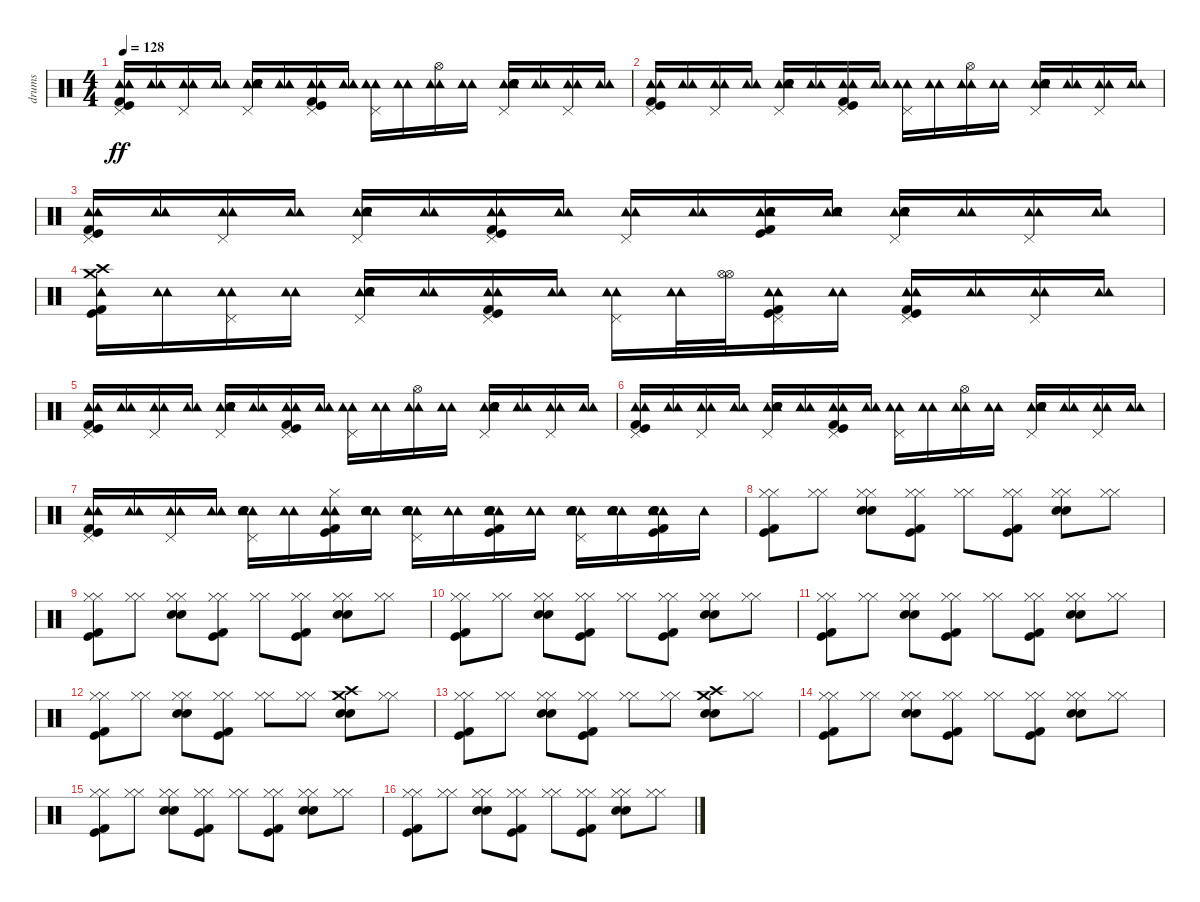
\track ("drums" "drums") {instrument percussion}
\staff {score}
\articulation defaults
\ts (4 4)
\tempo 128
\clef neutral
\ks c
("Tambourine (hit)" "Tambourine (hit)" "Pedal Hi-Hat (hit)" "Kick (hit)" "Kick (hit) 2").16{dy ff} ("Tambourine (hit)" "Tambourine (hit)").16 ("Tambourine (hit)" "Tambourine (hit)" "Pedal Hi-Hat (hit)").16 ("Tambourine (hit)" "Tambourine (hit)").16 ("Tambourine (hit)" "Tambourine (hit)" "Pedal Hi-Hat (hit)" "Snare (hit) 2" "Snare (hit) 2").16 ("Tambourine (hit)" "Tambourine (hit)").16 ("Tambourine (hit)" "Tambourine (hit)" "Pedal Hi-Hat (hit)" "Kick (hit)" "Kick (hit) 2").16 ("Tambourine (hit)" "Tambourine (hit)").16 ("Tambourine (hit)" "Tambourine (hit)" "Pedal Hi-Hat (hit)").16 ("Tambourine (hit)" "Tambourine (hit)").16 ("Tambourine (hit)" "Tambourine (hit)" "Hi-Hat (open)").16 ("Tambourine (hit)" "Tambourine (hit)").16 ("Tambourine (hit)" "Tambourine (hit)" "Pedal Hi-Hat (hit)" "Snare (hit) 2" "Snare (hit) 2").16 ("Tambourine (hit)" "Tambourine (hit)").16 ("Tambourine (hit)" "Tambourine (hit)" "Pedal Hi-Hat (hit)").16 ("Tambourine (hit)" "Tambourine (hit)").16 |
("Tambourine (hit)" "Tambourine (hit)" "Pedal Hi-Hat (hit)" "Kick (hit)" "Kick (hit) 2").16 ("Tambourine (hit)" "Tambourine (hit)").16 ("Tambourine (hit)" "Tambourine (hit)" "Pedal Hi-Hat (hit)").16 ("Tambourine (hit)" "Tambourine (hit)").16 ("Tambourine (hit)" "Tambourine (hit)" "Pedal Hi-Hat (hit)" "Snare (hit) 2" "Snare (hit) 2").16 ("Tambourine (hit)" "Tambourine (hit)").16 ("Tambourine (hit)" "Tambourine (hit)" "Pedal Hi-Hat (hit)" "Kick (hit)" "Kick (hit) 2").16 ("Tambourine (hit)" "Tambourine (hit)").16 ("Tambourine (hit)" "Tambourine (hit)" "Pedal Hi-Hat (hit)").16 ("Tambourine (hit)" "Tambourine (hit)").16 ("Tambourine (hit)" "Tambourine (hit)" "Hi-Hat (open)").16 ("Tambourine (hit)" "Tambourine (hit)").16 ("Tambourine (hit)" "Tambourine (hit)" "Pedal Hi-Hat (hit)" "Snare (hit) 2" "Snare (hit) 2").16 ("Tambourine (hit)" "Tambourine (hit)").16 ("Tambourine (hit)" "Tambourine (hit)" "Pedal Hi-Hat (hit)").16 ("Tambourine (hit)" "Tambourine (hit)").16 |
("Tambourine (hit)" "Tambourine (hit)" "Pedal Hi-Hat (hit)" "Kick (hit)" "Kick (hit) 2").16 ("Tambourine (hit)" "Tambourine (hit)").16 ("Tambourine (hit)" "Tambourine (hit)" "Pedal Hi-Hat (hit)").16 ("Tambourine (hit)" "Tambourine (hit)").16 ("Tambourine (hit)" "Tambourine (hit)" "Pedal Hi-Hat (hit)" "Snare (hit) 2" "Snare (hit) 2").16 ("Tambourine (hit)" "Tambourine (hit)").16 ("Pedal Hi-Hat (hit)" "Tambourine (hit)" "Tambourine (hit)" "Kick (hit)" "Kick (hit) 2").16 ("Tambourine (hit)" "Tambourine (hit)").16 ("Tambourine (hit)" "Tambourine (hit)" "Pedal Hi-Hat (hit)").16 ("Tambourine (hit)" "Tambourine (hit)").16 ("Tambourine (hit)" "Tambourine (hit)" "Snare (hit) 2" "Snare (hit) 2" "Kick (hit)" "Kick (hit) 2").16 ("Tambourine (hit)" "Tambourine (hit)" "Snare (hit) 2" "Snare (hit) 2").16 ("Tambourine (hit)" "Tambourine (hit)" "Pedal Hi-Hat (hit)" "Snare (hit) 2" "Snare (hit) 2").16 ("Tambourine (hit)" "Tambourine (hit)").16 ("Tambourine (hit)" "Tambourine (hit)" "Pedal Hi-Hat (hit)").16 ("Tambourine (hit)" "Tambourine (hit)").16 |
("Crash high (hit)" "Crash medium (hit)" "Tambourine (hit)" "Kick (hit)" "Kick (hit) 2").16 ("Tambourine (hit)" "Tambourine (hit)").16 ("Tambourine (hit)" "Tambourine (hit)" "Pedal Hi-Hat (hit)").16 ("Tambourine (hit)" "Tambourine (hit)").16 ("Tambourine (hit)" "Tambourine (hit)" "Pedal Hi-Hat (hit)" "Snare (hit) 2" "Snare (hit) 2").16 ("Tambourine (hit)" "Tambourine (hit)").16 ("Tambourine (hit)" "Tambourine (hit)" "Pedal Hi-Hat (hit)" "Kick (hit)" "Kick (hit) 2").16 ("Tambourine (hit)" "Tambourine (hit)").16 ("Tambourine (hit)" "Tambourine (hit)" "Pedal Hi-Hat (hit)").16 ("Tambourine (hit)" "Tambourine (hit)").32 ("Hi-Hat (open)" "Hi-Hat (open)").32 ("Tambourine (hit)" "Tambourine (hit)" "Pedal Hi-Hat (hit)" "Kick (hit)" "Kick (hit) 2").16 ("Tambourine (hit)" "Tambourine (hit)").16 ("Tambourine (hit)" "Tambourine (hit)" "Pedal Hi-Hat (hit)" "Kick (hit)" "Kick (hit) 2").16 ("Tambourine (hit)" "Tambourine (hit)").16 ("Tambourine (hit)" "Tambourine (hit)" "Pedal Hi-Hat (hit)").16 ("Tambourine (hit)" "Tambourine (hit)").16 |
("Tambourine (hit)" "Tambourine (hit)" "Pedal Hi-Hat (hit)" "Kick (hit)" "Kick (hit) 2").16 ("Tambourine (hit)" "Tambourine (hit)").16 ("Tambourine (hit)" "Tambourine (hit)" "Pedal Hi-Hat (hit)").16 ("Tambourine (hit)" "Tambourine (hit)").16 ("Tambourine (hit)" "Tambourine (hit)" "Pedal Hi-Hat (hit)" "Snare (hit) 2" "Snare (hit) 2").16 ("Tambourine (hit)" "Tambourine (hit)").16 ("Tambourine (hit)" "Tambourine (hit)" "Pedal Hi-Hat (hit)" "Kick (hit)" "Kick (hit) 2").16 ("Tambourine (hit)" "Tambourine (hit)").16 ("Tambourine (hit)" "Tambourine (hit)" "Pedal Hi-Hat (hit)").16 ("Tambourine (hit)" "Tambourine (hit)").16 ("Tambourine (hit)" "Tambourine (hit)" "Hi-Hat (open)").16 ("Tambourine (hit)" "Tambourine (hit)").16 ("Tambourine (hit)" "Tambourine (hit)" "Pedal Hi-Hat (hit)" "Snare (hit) 2" "Snare (hit) 2").16 ("Tambourine (hit)" "Tambourine (hit)").16 ("Tambourine (hit)" "Tambourine (hit)" "Pedal Hi-Hat (hit)").16 ("Tambourine (hit)" "Tambourine (hit)").16 |
("Tambourine (hit)" "Tambourine (hit)" "Pedal Hi-Hat (hit)" "Kick (hit)" "Kick (hit) 2").16 ("Tambourine (hit)" "Tambourine (hit)").16 ("Tambourine (hit)" "Tambourine (hit)" "Pedal Hi-Hat (hit)").16 ("Tambourine (hit)" "Tambourine (hit)").16 ("Tambourine (hit)" "Tambourine (hit)" "Pedal Hi-Hat (hit)" "Snare (hit) 2" "Snare (hit) 2").16 ("Tambourine (hit)" "Tambourine (hit)").16 ("Tambourine (hit)" "Tambourine (hit)" "Pedal Hi-Hat (hit)" "Kick (hit)" "Kick (hit) 2").16 ("Tambourine (hit)" "Tambourine (hit)").16 ("Tambourine (hit)" "Tambourine (hit)" "Pedal Hi-Hat (hit)").16 ("Tambourine (hit)" "Tambourine (hit)").16 ("Tambourine (hit)" "Tambourine (hit)" "Hi-Hat (open)").16 ("Tambourine (hit)" "Tambourine (hit)").16 ("Tambourine (hit)" "Tambourine (hit)" "Pedal Hi-Hat (hit)" "Snare (hit) 2" "Snare (hit) 2").16 ("Tambourine (hit)" "Tambourine (hit)").16 ("Tambourine (hit)" "Tambourine (hit)" "Pedal Hi-Hat (hit)").16 ("Tambourine (hit)" "Tambourine (hit)").16 |
("Tambourine (hit)" "Tambourine (hit)" "Pedal Hi-Hat (hit)" "Kick (hit)" "Kick (hit) 2").16 ("Tambourine (hit)" "Tambourine (hit)").16 ("Tambourine (hit)" "Tambourine (hit)" "Pedal Hi-Hat (hit)").16 ("Tambourine (hit)" "Tambourine (hit)").16 ("Tambourine (hit)" "Tambourine (hit)" "Pedal Hi-Hat (hit)" "Snare (hit) 2" "Snare (hit) 2").16 ("Tambourine (hit)" "Tambourine (hit)").16 ("Tambourine (hit)" "Hi-Hat (closed)" "Tambourine (hit)" "Kick (hit)" "Kick (hit) 2").16 ("Tambourine (hit)" "Tambourine (hit)" "Snare (hit) 2" "Snare (hit) 2").16 ("Tambourine (hit)" "Tambourine (hit)" "Pedal Hi-Hat (hit)" "Snare (hit) 2" "Snare (hit) 2").16 ("Tambourine (hit)" "Tambourine (hit)").16 ("Tambourine (hit)" "Tambourine (hit)" "Snare (hit) 2" "Snare (hit) 2" "Kick (hit)" "Kick (hit) 2").16 ("Tambourine (hit)" "Tambourine (hit)").16 ("Tambourine (hit)" "Tambourine (hit)" "Pedal Hi-Hat (hit)" "Snare (hit) 2" "Snare (hit) 2").16 ("Tambourine (hit)" "Tambourine (hit)" "Snare (hit) 2" "Snare (hit) 2").16 ("Tambourine (hit)" "Tambourine (hit)" "Snare (hit) 2" "Snare (hit) 2" "Kick (hit)" "Kick (hit) 2").16 "Tambourine (hit)".16 |
("Hi-Hat (closed)" "Hi-Hat (closed)" "Kick (hit)" "Kick (hit) 2").8 ("Hi-Hat (closed)" "Hi-Hat (closed)").8 ("Hi-Hat (closed)" "Hi-Hat (closed)" "Snare (hit) 2" "Snare (hit) 2").8 ("Hi-Hat (closed)" "Hi-Hat (closed)" "Kick (hit)" "Kick (hit) 2").8 ("Hi-Hat (closed)" "Hi-Hat (closed)").8 ("Hi-Hat (closed)" "Hi-Hat (closed)" "Kick (hit)" "Kick (hit) 2").8 ("Hi-Hat (closed)" "Hi-Hat (closed)" "Snare (hit) 2" "Snare (hit) 2").8 ("Hi-Hat (closed)" "Hi-Hat (closed)").8 |
("Hi-Hat (closed)" "Hi-Hat (closed)" "Kick (hit)" "Kick (hit) 2").8 ("Hi-Hat (closed)" "Hi-Hat (closed)").8 ("Hi-Hat (closed)" "Hi-Hat (closed)" "Snare (hit) 2" "Snare (hit) 2").8 ("Hi-Hat (closed)" "Hi-Hat (closed)" "Kick (hit)" "Kick (hit) 2").8 ("Hi-Hat (closed)" "Hi-Hat (closed)").8 ("Hi-Hat (closed)" "Hi-Hat (closed)" "Kick (hit)" "Kick (hit) 2").8 ("Hi-Hat (closed)" "Hi-Hat (closed)" "Snare (hit) 2" "Snare (hit) 2").8 ("Hi-Hat (closed)" "Hi-Hat (closed)").8 |
("Hi-Hat (closed)" "Hi-Hat (closed)" "Kick (hit)" "Kick (hit) 2").8 ("Hi-Hat (closed)" "Hi-Hat (closed)").8 ("Hi-Hat (closed)" "Hi-Hat (closed)" "Snare (hit) 2" "Snare (hit) 2").8 ("Hi-Hat (closed)" "Hi-Hat (closed)" "Kick (hit)" "Kick (hit) 2").8 ("Hi-Hat (closed)" "Hi-Hat (closed)").8 ("Hi-Hat (closed)" "Hi-Hat (closed)" "Kick (hit)" "Kick (hit) 2").8 ("Hi-Hat (closed)" "Hi-Hat (closed)" "Snare (hit) 2" "Snare (hit) 2").8 ("Hi-Hat (closed)" "Hi-Hat (closed)").8 |
("Hi-Hat (closed)" "Hi-Hat (closed)" "Kick (hit)" "Kick (hit) 2").8 ("Hi-Hat (closed)" "Hi-Hat (closed)").8 ("Hi-Hat (closed)" "Hi-Hat (closed)" "Snare (hit) 2" "Snare (hit) 2").8 ("Hi-Hat (closed)" "Hi-Hat (closed)" "Kick (hit)" "Kick (hit) 2").8 ("Hi-Hat (closed)" "Hi-Hat (closed)").8 ("Hi-Hat (closed)" "Hi-Hat (closed)" "Kick (hit)" "Kick (hit) 2").8 ("Hi-Hat (closed)" "Hi-Hat (closed)" "Snare (hit) 2" "Snare (hit) 2").8 ("Hi-Hat (closed)" "Hi-Hat (closed)").8 |
("Hi-Hat (closed)" "Hi-Hat (closed)" "Kick (hit)" "Kick (hit) 2").8 ("Hi-Hat (closed)" "Hi-Hat (closed)").8 ("Hi-Hat (closed)" "Hi-Hat (closed)" "Snare (hit) 2" "Snare (hit) 2").8 ("Hi-Hat (closed)" "Hi-Hat (closed)" "Kick (hit)" "Kick (hit) 2").8 ("Hi-Hat (closed)" "Hi-Hat (closed)").8 ("Hi-Hat (closed)" "Hi-Hat (closed)").8 ("Crash medium (hit)" "Snare (hit) 2" "Snare (hit) 2" "Crash high (hit)").8 ("Hi-Hat (closed)" "Hi-Hat (closed)").8 |
("Hi-Hat (closed)" "Hi-Hat (closed)" "Kick (hit)" "Kick (hit) 2").8 ("Hi-Hat (closed)" "Hi-Hat (closed)").8 ("Hi-Hat (closed)" "Hi-Hat (closed)" "Snare (hit) 2" "Snare (hit) 2").8 ("Hi-Hat (closed)" "Hi-Hat (closed)" "Kick (hit)" "Kick (hit) 2").8 ("Hi-Hat (closed)" "Hi-Hat (closed)").8 ("Hi-Hat (closed)" "Hi-Hat (closed)").8 ("Crash medium (hit)" "Snare (hit) 2" "Snare (hit) 2" "Crash high (hit)").8 ("Hi-Hat (closed)" "Hi-Hat (closed)").8 |
("Hi-Hat (closed)" "Hi-Hat (closed)" "Kick (hit)" "Kick (hit) 2").8 ("Hi-Hat (closed)" "Hi-Hat (closed)").8 ("Hi-Hat (closed)" "Hi-Hat (closed)" "Snare (hit) 2" "Snare (hit) 2").8 ("Hi-Hat (closed)" "Hi-Hat (closed)" "Kick (hit)" "Kick (hit) 2").8 ("Hi-Hat (closed)" "Hi-Hat (closed)").8 ("Hi-Hat (closed)" "Hi-Hat (closed)" "Kick (hit)" "Kick (hit) 2").8 ("Hi-Hat (closed)" "Hi-Hat (closed)" "Snare (hit) 2" "Snare (hit) 2").8 ("Hi-Hat (closed)" "Hi-Hat (closed)").8 |
("Hi-Hat (closed)" "Hi-Hat (closed)" "Kick (hit)" "Kick (hit) 2").8 ("Hi-Hat (closed)" "Hi-Hat (closed)").8 ("Hi-Hat (closed)" "Hi-Hat (closed)" "Snare (hit) 2" "Snare (hit) 2").8 ("Hi-Hat (closed)" "Hi-Hat (closed)" "Kick (hit)" "Kick (hit) 2").8 ("Hi-Hat (closed)" "Hi-Hat (closed)").8 ("Hi-Hat (closed)" "Hi-Hat (closed)" "Kick (hit)" "Kick (hit) 2").8 ("Hi-Hat (closed)" "Hi-Hat (closed)" "Snare (hit) 2" "Snare (hit) 2").8 ("Hi-Hat (closed)" "Hi-Hat (closed)").8 |
("Hi-Hat (closed)" "Hi-Hat (closed)" "Kick (hit)" "Kick (hit) 2").8 ("Hi-Hat (closed)" "Hi-Hat (closed)").8 ("Hi-Hat (closed)" "Hi-Hat (closed)" "Snare (hit) 2" "Snare (hit) 2").8 ("Hi-Hat (closed)" "Hi-Hat (closed)" "Kick (hit)" "Kick (hit) 2").8 ("Hi-Hat (closed)" "Hi-Hat (closed)").8 ("Hi-Hat (closed)" "Hi-Hat (closed)" "Kick (hit)" "Kick (hit) 2").8 ("Hi-Hat (closed)" "Hi-Hat (closed)" "Snare (hit) 2" "Snare (hit) 2").8 ("Hi-Hat (closed)" "Hi-Hat (closed)").8
